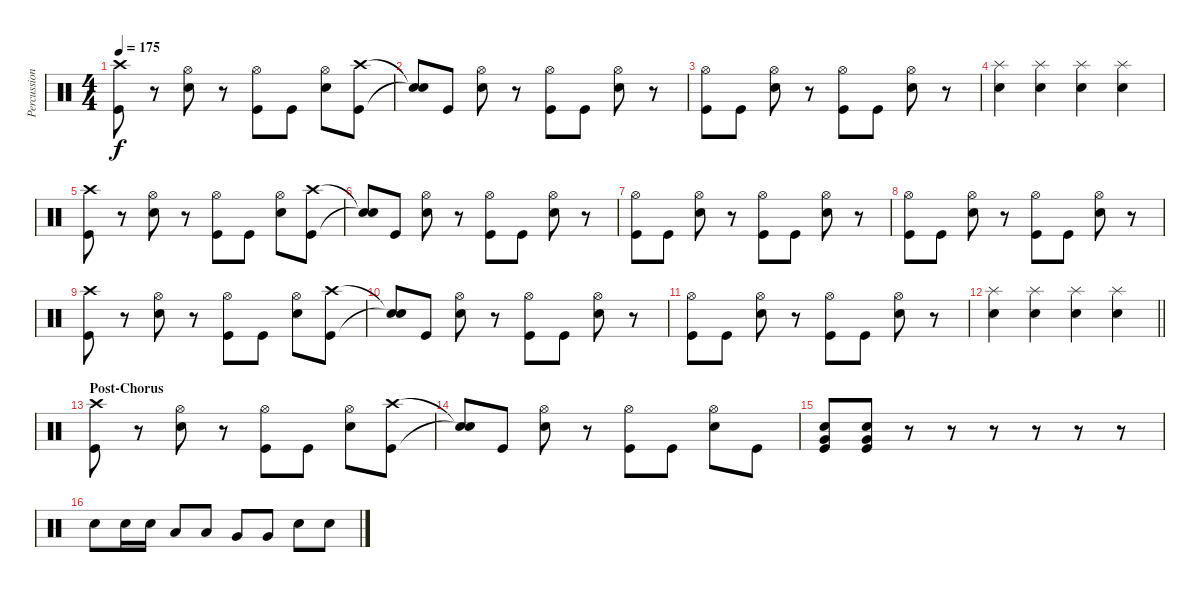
\track ("Percussion" "Percussion") {instrument percussion}
\staff {score}
\articulation defaults
\ts (4 4)
\tempo 175
\clef neutral
\ks c
("Crash high (hit)" "Kick (hit)").8{dy f} r.8 ("Hi-Hat (open)" "Snare (hit) 2").8 r.8 ("Hi-Hat (open)" "Kick (hit)").8 "Kick (hit)".8 ("Hi-Hat (open)" "Snare (hit) 2").8 ("Crash high (hit)" "Kick (hit)").8 |
("Snare (hit)"{t} "Snare (hit)"{t}).8 "Kick (hit)".8 ("Hi-Hat (open)" "Snare (hit) 2").8 r.8 ("Hi-Hat (open)" "Kick (hit)").8 "Kick (hit)".8 ("Hi-Hat (open)" "Snare (hit) 2").8 r.8 |
("Hi-Hat (open)" "Kick (hit)").8 "Kick (hit)".8 ("Hi-Hat (open)" "Snare (hit) 2").8 r.8 ("Hi-Hat (open)" "Kick (hit)").8 "Kick (hit)".8 ("Hi-Hat (open)" "Snare (hit) 2").8 r.8 |
("Splash (hit)" "Snare (hit) 2").4 ("Splash (hit)" "Snare (hit) 2").4 ("Splash (hit)" "Snare (hit) 2").4 ("Splash (hit)" "Snare (hit) 2").4 |
("Crash high (hit)" "Kick (hit)").8 r.8 ("Hi-Hat (open)" "Snare (hit) 2").8 r.8 ("Hi-Hat (open)" "Kick (hit)").8 "Kick (hit)".8 ("Hi-Hat (open)" "Snare (hit) 2").8 ("Crash high (hit)" "Kick (hit)").8 |
("Snare (hit)"{t} "Snare (hit)"{t}).8 "Kick (hit)".8 ("Hi-Hat (open)" "Snare (hit) 2").8 r.8 ("Hi-Hat (open)" "Kick (hit)").8 "Kick (hit)".8 ("Hi-Hat (open)" "Snare (hit) 2").8 r.8 |
("Hi-Hat (open)" "Kick (hit)").8 "Kick (hit)".8 ("Hi-Hat (open)" "Snare (hit) 2").8 r.8 ("Hi-Hat (open)" "Kick (hit)").8 "Kick (hit)".8 ("Hi-Hat (open)" "Snare (hit) 2").8 r.8 |
("Hi-Hat (open)" "Kick (hit)").8 "Kick (hit)".8 ("Hi-Hat (open)" "Snare (hit) 2").8 r.8 ("Hi-Hat (open)" "Kick (hit)").8 "Kick (hit)".8 ("Hi-Hat (open)" "Snare (hit) 2").8 r.8 |
("Crash high (hit)" "Kick (hit)").8 r.8 ("Hi-Hat (open)" "Snare (hit) 2").8 r.8 ("Hi-Hat (open)" "Kick (hit)").8 "Kick (hit)".8 ("Hi-Hat (open)" "Snare (hit) 2").8 ("Crash high (hit)" "Kick (hit)").8 |
("Snare (hit)"{t} "Snare (hit)"{t}).8 "Kick (hit)".8 ("Hi-Hat (open)" "Snare (hit) 2").8 r.8 ("Hi-Hat (open)" "Kick (hit)").8 "Kick (hit)".8 ("Hi-Hat (open)" "Snare (hit) 2").8 r.8 |
("Hi-Hat (open)" "Kick (hit)").8 "Kick (hit)".8 ("Hi-Hat (open)" "Snare (hit) 2").8 r.8 ("Hi-Hat (open)" "Kick (hit)").8 "Kick (hit)".8 ("Hi-Hat (open)" "Snare (hit) 2").8 r.8 |
\barLineRight lightlight
("Splash (hit)" "Snare (hit) 2").4 ("Splash (hit)" "Snare (hit) 2").4 ("Splash (hit)" "Snare (hit) 2").4 ("Splash (hit)" "Snare (hit) 2").4 |
\section ("" "Post-Chorus")
("Crash high (hit)" "Kick (hit)").8 r.8 ("Hi-Hat (open)" "Snare (hit) 2").8 r.8 ("Hi-Hat (open)" "Kick (hit)").8 "Kick (hit)".8 ("Hi-Hat (open)" "Snare (hit) 2").8 ("Crash high (hit)" "Kick (hit)").8 |
("Snare (hit)"{t} "Snare (hit)"{t}).8 "Kick (hit)".8 ("Hi-Hat (open)" "Snare (hit) 2").8 r.8 ("Hi-Hat (open)" "Kick (hit)").8 "Kick (hit)".8 ("Hi-Hat (open)" "Snare (hit) 2").8 "Kick (hit)".8 |
("Snare (hit) 2" "Very Low Tom (hit)" "Kick (hit)").8 ("Snare (hit) 2" "Very Low Tom (hit)" "Kick (hit)").8 r.8 r.8 r.8 r.8 r.8 r.8 |
"Snare (hit) 2".8 "Snare (hit) 2".16 "Snare (hit) 2".16 "Low Tom (hit)".8 "Low Tom (hit)".8 "Very Low Tom (hit)".8 "Very Low Tom (hit)".8 "Snare (hit) 2".8 "Snare (hit) 2".8
